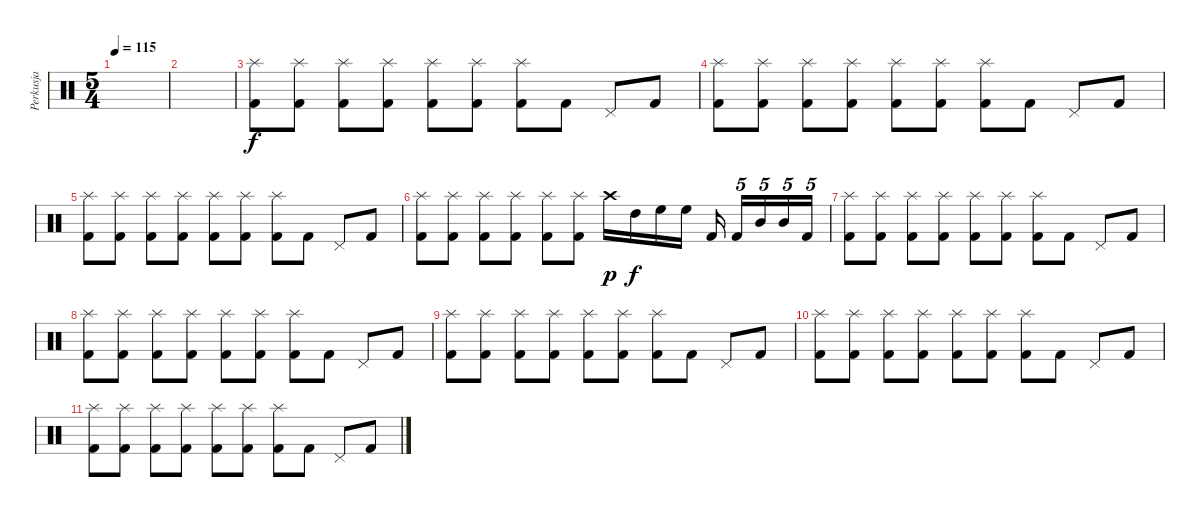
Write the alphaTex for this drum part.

\track ("Perkusja" "Perkusja") {instrument percussion}
\staff {score}
\articulation defaults
\ts (5 4)
\tempo 115
\clef neutral
\ks c
|
|
("Splash (hit)" "Kick (hit) 2").8 ("Splash (hit)" "Kick (hit) 2").8 ("Splash (hit)" "Kick (hit) 2").8 ("Splash (hit)" "Kick (hit) 2").8 ("Splash (hit)" "Kick (hit) 2").8 ("Splash (hit)" "Kick (hit) 2").8 ("Splash (hit)" "Kick (hit) 2").8 "Kick (hit) 2".8 "Pedal Hi-Hat (hit)".8 "Kick (hit) 2".8 |
("Splash (hit)" "Kick (hit) 2").8 ("Splash (hit)" "Kick (hit) 2").8 ("Splash (hit)" "Kick (hit) 2").8 ("Splash (hit)" "Kick (hit) 2").8 ("Splash (hit)" "Kick (hit) 2").8 ("Splash (hit)" "Kick (hit) 2").8 ("Splash (hit)" "Kick (hit) 2").8 "Kick (hit) 2".8 "Pedal Hi-Hat (hit)".8 "Kick (hit) 2".8 |
("Splash (hit)" "Kick (hit) 2").8 ("Splash (hit)" "Kick (hit) 2").8 ("Splash (hit)" "Kick (hit) 2").8 ("Splash (hit)" "Kick (hit) 2").8 ("Splash (hit)" "Kick (hit) 2").8 ("Splash (hit)" "Kick (hit) 2").8 ("Splash (hit)" "Kick (hit) 2").8 "Kick (hit) 2".8 "Pedal Hi-Hat (hit)".8 "Kick (hit) 2".8 |
("Splash (hit)" "Kick (hit) 2").8 ("Splash (hit)" "Kick (hit) 2").8 ("Splash (hit)" "Kick (hit) 2").8 ("Splash (hit)" "Kick (hit) 2").8 ("Splash (hit)" "Kick (hit) 2").8 ("Splash (hit)" "Kick (hit) 2").8 "Crash high (hit)".16{dy p} "High Tom (hit)".16{dy f} "High Floor Tom (hit)".16 "High Floor Tom (hit)".16 "Kick (hit) 2".16{beam splitsecondary} "Kick (hit) 2".16{tu (5 4)} "Mid Tom (hit)".16{tu (5 4)} "Mid Tom (hit)".16{tu (5 4)} "Kick (hit) 2".16{tu (5 4)} |
("Splash (hit)" "Kick (hit) 2").8 ("Splash (hit)" "Kick (hit) 2").8 ("Splash (hit)" "Kick (hit) 2").8 ("Splash (hit)" "Kick (hit) 2").8 ("Splash (hit)" "Kick (hit) 2").8 ("Splash (hit)" "Kick (hit) 2").8 ("Splash (hit)" "Kick (hit) 2").8 "Kick (hit) 2".8 "Pedal Hi-Hat (hit)".8 "Kick (hit) 2".8 |
("Splash (hit)" "Kick (hit) 2").8 ("Splash (hit)" "Kick (hit) 2").8 ("Splash (hit)" "Kick (hit) 2").8 ("Splash (hit)" "Kick (hit) 2").8 ("Splash (hit)" "Kick (hit) 2").8 ("Splash (hit)" "Kick (hit) 2").8 ("Splash (hit)" "Kick (hit) 2").8 "Kick (hit) 2".8 "Pedal Hi-Hat (hit)".8 "Kick (hit) 2".8 |
("Splash (hit)" "Kick (hit) 2").8 ("Splash (hit)" "Kick (hit) 2").8 ("Splash (hit)" "Kick (hit) 2").8 ("Splash (hit)" "Kick (hit) 2").8 ("Splash (hit)" "Kick (hit) 2").8 ("Splash (hit)" "Kick (hit) 2").8 ("Splash (hit)" "Kick (hit) 2").8 "Kick (hit) 2".8 "Pedal Hi-Hat (hit)".8 "Kick (hit) 2".8 |
("Splash (hit)" "Kick (hit) 2").8 ("Splash (hit)" "Kick (hit) 2").8 ("Splash (hit)" "Kick (hit) 2").8 ("Splash (hit)" "Kick (hit) 2").8 ("Splash (hit)" "Kick (hit) 2").8 ("Splash (hit)" "Kick (hit) 2").8 ("Splash (hit)" "Kick (hit) 2").8 "Kick (hit) 2".8 "Pedal Hi-Hat (hit)".8 "Kick (hit) 2".8 |
("Splash (hit)" "Kick (hit) 2").8 ("Splash (hit)" "Kick (hit) 2").8 ("Splash (hit)" "Kick (hit) 2").8 ("Splash (hit)" "Kick (hit) 2").8 ("Splash (hit)" "Kick (hit) 2").8 ("Splash (hit)" "Kick (hit) 2").8 ("Splash (hit)" "Kick (hit) 2").8 "Kick (hit) 2".8 "Pedal Hi-Hat (hit)".8 "Kick (hit) 2".8
